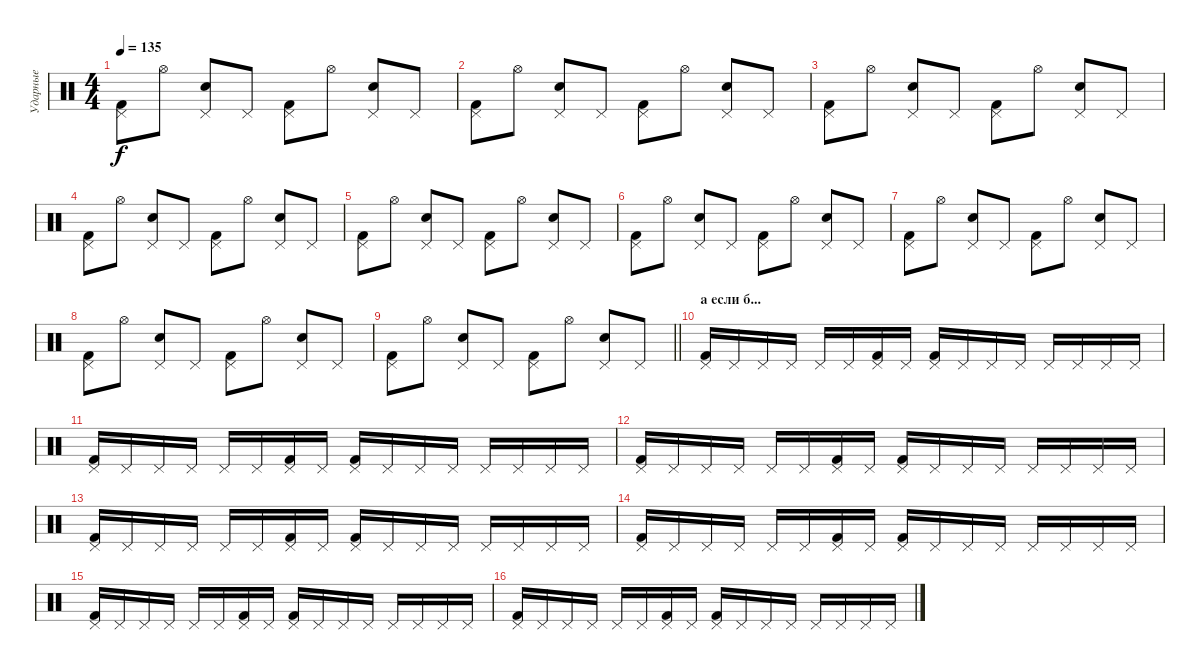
\track ("Ударные" "Ударные") {instrument percussion}
\staff {score}
\articulation defaults
\ts (4 4)
\tempo 135
\clef neutral
\ks c
("Pedal Hi-Hat (hit)" "Kick (hit) 2").8{dy f} "Hi-Hat (open)".8 ("Pedal Hi-Hat (hit)" "Snare (hit) 2").8 "Pedal Hi-Hat (hit)".8 ("Pedal Hi-Hat (hit)" "Kick (hit) 2").8 "Hi-Hat (open)".8 ("Pedal Hi-Hat (hit)" "Snare (hit) 2").8 "Pedal Hi-Hat (hit)".8 |
("Pedal Hi-Hat (hit)" "Kick (hit) 2").8 "Hi-Hat (open)".8 ("Pedal Hi-Hat (hit)" "Snare (hit) 2").8 "Pedal Hi-Hat (hit)".8 ("Pedal Hi-Hat (hit)" "Kick (hit) 2").8 "Hi-Hat (open)".8 ("Pedal Hi-Hat (hit)" "Snare (hit) 2").8 "Pedal Hi-Hat (hit)".8 |
("Pedal Hi-Hat (hit)" "Kick (hit) 2").8 "Hi-Hat (open)".8 ("Pedal Hi-Hat (hit)" "Snare (hit) 2").8 "Pedal Hi-Hat (hit)".8 ("Pedal Hi-Hat (hit)" "Kick (hit) 2").8 "Hi-Hat (open)".8 ("Pedal Hi-Hat (hit)" "Snare (hit) 2").8 "Pedal Hi-Hat (hit)".8 |
("Pedal Hi-Hat (hit)" "Kick (hit) 2").8 "Hi-Hat (open)".8 ("Pedal Hi-Hat (hit)" "Snare (hit) 2").8 "Pedal Hi-Hat (hit)".8 ("Pedal Hi-Hat (hit)" "Kick (hit) 2").8 "Hi-Hat (open)".8 ("Pedal Hi-Hat (hit)" "Snare (hit) 2").8 "Pedal Hi-Hat (hit)".8 |
("Pedal Hi-Hat (hit)" "Kick (hit) 2").8 "Hi-Hat (open)".8 ("Pedal Hi-Hat (hit)" "Snare (hit) 2").8 "Pedal Hi-Hat (hit)".8 ("Pedal Hi-Hat (hit)" "Kick (hit) 2").8 "Hi-Hat (open)".8 ("Pedal Hi-Hat (hit)" "Snare (hit) 2").8 "Pedal Hi-Hat (hit)".8 |
("Pedal Hi-Hat (hit)" "Kick (hit) 2").8 "Hi-Hat (open)".8 ("Pedal Hi-Hat (hit)" "Snare (hit) 2").8 "Pedal Hi-Hat (hit)".8 ("Pedal Hi-Hat (hit)" "Kick (hit) 2").8 "Hi-Hat (open)".8 ("Pedal Hi-Hat (hit)" "Snare (hit) 2").8 "Pedal Hi-Hat (hit)".8 |
("Pedal Hi-Hat (hit)" "Kick (hit) 2").8 "Hi-Hat (open)".8 ("Pedal Hi-Hat (hit)" "Snare (hit) 2").8 "Pedal Hi-Hat (hit)".8 ("Pedal Hi-Hat (hit)" "Kick (hit) 2").8 "Hi-Hat (open)".8 ("Pedal Hi-Hat (hit)" "Snare (hit) 2").8 "Pedal Hi-Hat (hit)".8 |
("Pedal Hi-Hat (hit)" "Kick (hit) 2").8 "Hi-Hat (open)".8 ("Pedal Hi-Hat (hit)" "Snare (hit) 2").8 "Pedal Hi-Hat (hit)".8 ("Pedal Hi-Hat (hit)" "Kick (hit) 2").8 "Hi-Hat (open)".8 ("Pedal Hi-Hat (hit)" "Snare (hit) 2").8 "Pedal Hi-Hat (hit)".8 |
\barLineRight lightlight
("Pedal Hi-Hat (hit)" "Kick (hit) 2").8 "Hi-Hat (open)".8 ("Pedal Hi-Hat (hit)" "Snare (hit) 2").8 "Pedal Hi-Hat (hit)".8 ("Pedal Hi-Hat (hit)" "Kick (hit) 2").8 "Hi-Hat (open)".8 ("Pedal Hi-Hat (hit)" "Snare (hit) 2").8 "Pedal Hi-Hat (hit)".8 |
\section ("" "а если б...")
("Pedal Hi-Hat (hit)" "Kick (hit) 2").16 "Pedal Hi-Hat (hit)".16 "Pedal Hi-Hat (hit)".16 "Pedal Hi-Hat (hit)".16 "Pedal Hi-Hat (hit)".16 "Pedal Hi-Hat (hit)".16 ("Pedal Hi-Hat (hit)" "Kick (hit) 2").16 "Pedal Hi-Hat (hit)".16 ("Pedal Hi-Hat (hit)" "Kick (hit) 2").16 "Pedal Hi-Hat (hit)".16 "Pedal Hi-Hat (hit)".16 "Pedal Hi-Hat (hit)".16 "Pedal Hi-Hat (hit)".16 "Pedal Hi-Hat (hit)".16 "Pedal Hi-Hat (hit)".16 "Pedal Hi-Hat (hit)".16 |
("Pedal Hi-Hat (hit)" "Kick (hit) 2").16 "Pedal Hi-Hat (hit)".16 "Pedal Hi-Hat (hit)".16 "Pedal Hi-Hat (hit)".16 "Pedal Hi-Hat (hit)".16 "Pedal Hi-Hat (hit)".16 ("Pedal Hi-Hat (hit)" "Kick (hit) 2").16 "Pedal Hi-Hat (hit)".16 ("Pedal Hi-Hat (hit)" "Kick (hit) 2").16 "Pedal Hi-Hat (hit)".16 "Pedal Hi-Hat (hit)".16 "Pedal Hi-Hat (hit)".16 "Pedal Hi-Hat (hit)".16 "Pedal Hi-Hat (hit)".16 "Pedal Hi-Hat (hit)".16 "Pedal Hi-Hat (hit)".16 |
("Pedal Hi-Hat (hit)" "Kick (hit) 2").16 "Pedal Hi-Hat (hit)".16 "Pedal Hi-Hat (hit)".16 "Pedal Hi-Hat (hit)".16 "Pedal Hi-Hat (hit)".16 "Pedal Hi-Hat (hit)".16 ("Pedal Hi-Hat (hit)" "Kick (hit) 2").16 "Pedal Hi-Hat (hit)".16 ("Pedal Hi-Hat (hit)" "Kick (hit) 2").16 "Pedal Hi-Hat (hit)".16 "Pedal Hi-Hat (hit)".16 "Pedal Hi-Hat (hit)".16 "Pedal Hi-Hat (hit)".16 "Pedal Hi-Hat (hit)".16 "Pedal Hi-Hat (hit)".16 "Pedal Hi-Hat (hit)".16 |
("Pedal Hi-Hat (hit)" "Kick (hit) 2").16 "Pedal Hi-Hat (hit)".16 "Pedal Hi-Hat (hit)".16 "Pedal Hi-Hat (hit)".16 "Pedal Hi-Hat (hit)".16 "Pedal Hi-Hat (hit)".16 ("Pedal Hi-Hat (hit)" "Kick (hit) 2").16 "Pedal Hi-Hat (hit)".16 ("Pedal Hi-Hat (hit)" "Kick (hit) 2").16 "Pedal Hi-Hat (hit)".16 "Pedal Hi-Hat (hit)".16 "Pedal Hi-Hat (hit)".16 "Pedal Hi-Hat (hit)".16 "Pedal Hi-Hat (hit)".16 "Pedal Hi-Hat (hit)".16 "Pedal Hi-Hat (hit)".16 |
("Pedal Hi-Hat (hit)" "Kick (hit) 2").16 "Pedal Hi-Hat (hit)".16 "Pedal Hi-Hat (hit)".16 "Pedal Hi-Hat (hit)".16 "Pedal Hi-Hat (hit)".16 "Pedal Hi-Hat (hit)".16 ("Pedal Hi-Hat (hit)" "Kick (hit) 2").16 "Pedal Hi-Hat (hit)".16 ("Pedal Hi-Hat (hit)" "Kick (hit) 2").16 "Pedal Hi-Hat (hit)".16 "Pedal Hi-Hat (hit)".16 "Pedal Hi-Hat (hit)".16 "Pedal Hi-Hat (hit)".16 "Pedal Hi-Hat (hit)".16 "Pedal Hi-Hat (hit)".16 "Pedal Hi-Hat (hit)".16 |
("Pedal Hi-Hat (hit)" "Kick (hit) 2").16 "Pedal Hi-Hat (hit)".16 "Pedal Hi-Hat (hit)".16 "Pedal Hi-Hat (hit)".16 "Pedal Hi-Hat (hit)".16 "Pedal Hi-Hat (hit)".16 ("Pedal Hi-Hat (hit)" "Kick (hit) 2").16 "Pedal Hi-Hat (hit)".16 ("Pedal Hi-Hat (hit)" "Kick (hit) 2").16 "Pedal Hi-Hat (hit)".16 "Pedal Hi-Hat (hit)".16 "Pedal Hi-Hat (hit)".16 "Pedal Hi-Hat (hit)".16 "Pedal Hi-Hat (hit)".16 "Pedal Hi-Hat (hit)".16 "Pedal Hi-Hat (hit)".16 |
("Pedal Hi-Hat (hit)" "Kick (hit) 2").16 "Pedal Hi-Hat (hit)".16 "Pedal Hi-Hat (hit)".16 "Pedal Hi-Hat (hit)".16 "Pedal Hi-Hat (hit)".16 "Pedal Hi-Hat (hit)".16 ("Pedal Hi-Hat (hit)" "Kick (hit) 2").16 "Pedal Hi-Hat (hit)".16 ("Pedal Hi-Hat (hit)" "Kick (hit) 2").16 "Pedal Hi-Hat (hit)".16 "Pedal Hi-Hat (hit)".16 "Pedal Hi-Hat (hit)".16 "Pedal Hi-Hat (hit)".16 "Pedal Hi-Hat (hit)".16 "Pedal Hi-Hat (hit)".16 "Pedal Hi-Hat (hit)".16
